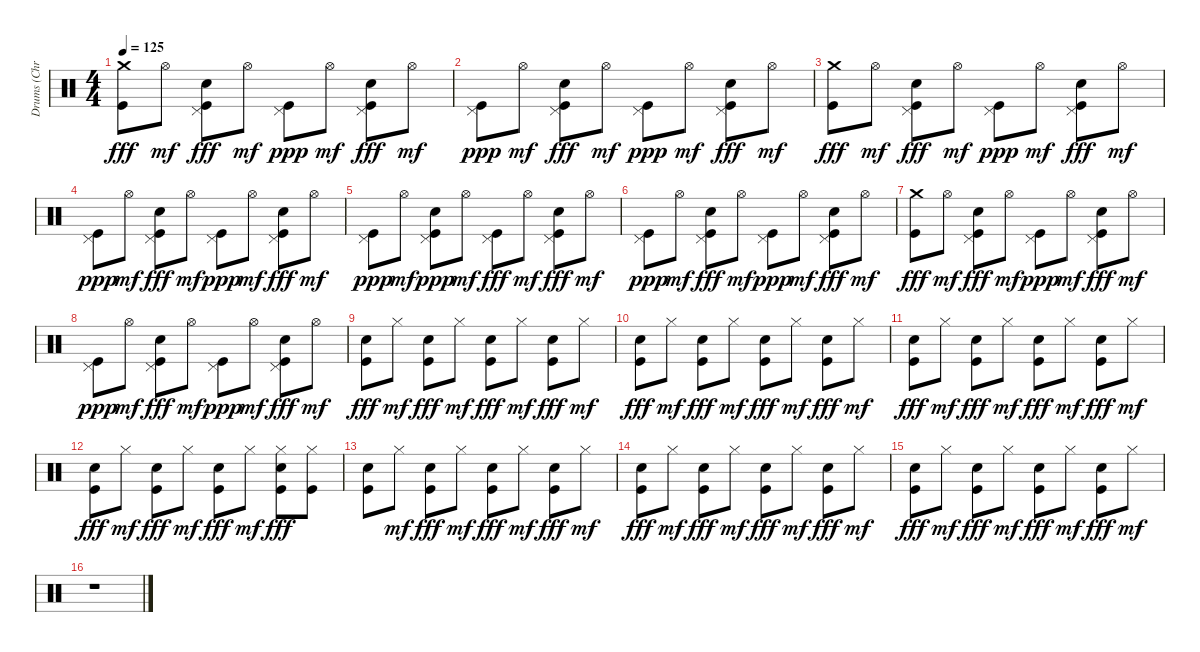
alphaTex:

\track ("Drums (Christoph)" "Drums (Chr") {instrument percussion}
\staff {score}
\articulation defaults
\ts (4 4)
\tempo 125
\clef neutral
\ks c
("Kick (hit)" "Crash medium (hit)").8{dy fff} "Hi-Hat (open)".8{dy mf} ("Kick (hit)" "Pedal Hi-Hat (hit)" "Electric Snare (hit)").8{dy fff} "Hi-Hat (open)".8{dy mf} ("Kick (hit)" "Pedal Hi-Hat (hit)").8{dy ppp} "Hi-Hat (open)".8{dy mf} ("Kick (hit)" "Pedal Hi-Hat (hit)" "Electric Snare (hit)").8{dy fff} "Hi-Hat (open)".8{dy mf} |
("Kick (hit)" "Pedal Hi-Hat (hit)").8{dy ppp} "Hi-Hat (open)".8{dy mf} ("Kick (hit)" "Pedal Hi-Hat (hit)" "Electric Snare (hit)").8{dy fff} "Hi-Hat (open)".8{dy mf} ("Kick (hit)" "Pedal Hi-Hat (hit)").8{dy ppp} "Hi-Hat (open)".8{dy mf} ("Kick (hit)" "Pedal Hi-Hat (hit)" "Electric Snare (hit)").8{dy fff} "Hi-Hat (open)".8{dy mf} |
("Kick (hit)" "Crash medium (hit)").8{dy fff} "Hi-Hat (open)".8{dy mf} ("Kick (hit)" "Pedal Hi-Hat (hit)" "Electric Snare (hit)").8{dy fff} "Hi-Hat (open)".8{dy mf} ("Kick (hit)" "Pedal Hi-Hat (hit)").8{dy ppp} "Hi-Hat (open)".8{dy mf} ("Kick (hit)" "Pedal Hi-Hat (hit)" "Electric Snare (hit)").8{dy fff} "Hi-Hat (open)".8{dy mf} |
("Kick (hit)" "Pedal Hi-Hat (hit)").8{dy ppp} "Hi-Hat (open)".8{dy mf} ("Kick (hit)" "Pedal Hi-Hat (hit)" "Electric Snare (hit)").8{dy fff} "Hi-Hat (open)".8{dy mf} ("Kick (hit)" "Pedal Hi-Hat (hit)").8{dy ppp} "Hi-Hat (open)".8{dy mf} ("Kick (hit)" "Pedal Hi-Hat (hit)" "Electric Snare (hit)").8{dy fff} "Hi-Hat (open)".8{dy mf} |
("Kick (hit)" "Pedal Hi-Hat (hit)").8{dy ppp} "Hi-Hat (open)".8{dy mf} ("Electric Snare (hit)" "Kick (hit)" "Pedal Hi-Hat (hit)").8{dy ppp} "Hi-Hat (open)".8{dy mf} ("Pedal Hi-Hat (hit)" "Kick (hit)").8{dy fff} "Hi-Hat (open)".8{dy mf} ("Kick (hit)" "Pedal Hi-Hat (hit)" "Electric Snare (hit)").8{dy fff} "Hi-Hat (open)".8{dy mf} |
("Kick (hit)" "Pedal Hi-Hat (hit)").8{dy ppp} "Hi-Hat (open)".8{dy mf} ("Pedal Hi-Hat (hit)" "Kick (hit)" "Electric Snare (hit)").8{dy fff} "Hi-Hat (open)".8{dy mf} ("Kick (hit)" "Pedal Hi-Hat (hit)").8{dy ppp} "Hi-Hat (open)".8{dy mf} ("Electric Snare (hit)" "Pedal Hi-Hat (hit)" "Kick (hit)").8{dy fff} "Hi-Hat (open)".8{dy mf} |
("Kick (hit)" "Crash medium (hit)").8{dy fff} "Hi-Hat (open)".8{dy mf} ("Kick (hit)" "Pedal Hi-Hat (hit)" "Electric Snare (hit)").8{dy fff} "Hi-Hat (open)".8{dy mf} ("Kick (hit)" "Pedal Hi-Hat (hit)").8{dy ppp} "Hi-Hat (open)".8{dy mf} ("Kick (hit)" "Pedal Hi-Hat (hit)" "Electric Snare (hit)").8{dy fff} "Hi-Hat (open)".8{dy mf} |
("Kick (hit)" "Pedal Hi-Hat (hit)").8{dy ppp} "Hi-Hat (open)".8{dy mf} ("Kick (hit)" "Pedal Hi-Hat (hit)" "Electric Snare (hit)").8{dy fff} "Hi-Hat (open)".8{dy mf} ("Kick (hit)" "Pedal Hi-Hat (hit)").8{dy ppp} "Hi-Hat (open)".8{dy mf} ("Kick (hit)" "Pedal Hi-Hat (hit)" "Electric Snare (hit)").8{dy fff} "Hi-Hat (open)".8{dy mf} |
("Kick (hit)" "Electric Snare (hit)").8{dy fff} "Hi-Hat (closed)".8{dy mf} ("Kick (hit)" "Electric Snare (hit)").8{dy fff} "Hi-Hat (closed)".8{dy mf} ("Kick (hit)" "Electric Snare (hit)").8{dy fff} "Hi-Hat (closed)".8{dy mf} ("Kick (hit)" "Electric Snare (hit)").8{dy fff} "Hi-Hat (closed)".8{dy mf} |
("Kick (hit)" "Electric Snare (hit)").8{dy fff} "Hi-Hat (closed)".8{dy mf} ("Kick (hit)" "Electric Snare (hit)").8{dy fff} "Hi-Hat (closed)".8{dy mf} ("Kick (hit)" "Electric Snare (hit)").8{dy fff} "Hi-Hat (closed)".8{dy mf} ("Kick (hit)" "Electric Snare (hit)").8{dy fff} "Hi-Hat (closed)".8{dy mf} |
("Kick (hit)" "Electric Snare (hit)").8{dy fff} "Hi-Hat (closed)".8{dy mf} ("Kick (hit)" "Electric Snare (hit)").8{dy fff} "Hi-Hat (closed)".8{dy mf} ("Electric Snare (hit)" "Kick (hit)").8{dy fff} "Hi-Hat (closed)".8{dy mf} ("Electric Snare (hit)" "Kick (hit)").8{dy fff} "Hi-Hat (closed)".8{dy mf} |
("Electric Snare (hit)" "Kick (hit)").8{dy fff} "Hi-Hat (closed)".8{dy mf} ("Electric Snare (hit)" "Kick (hit)").8{dy fff} "Hi-Hat (closed)".8{dy mf} ("Electric Snare (hit)" "Kick (hit)").8{dy fff} "Hi-Hat (closed)".8{dy mf} ("Electric Snare (hit)" "Hi-Hat (closed)" "Kick (hit)").8{dy fff} ("Hi-Hat (closed)" "Kick (hit)").8 |
("Electric Snare (hit)" "Kick (hit)").8 "Hi-Hat (closed)".8{dy mf} ("Electric Snare (hit)" "Kick (hit)").8{dy fff} "Hi-Hat (closed)".8{dy mf} ("Electric Snare (hit)" "Kick (hit)").8{dy fff} "Hi-Hat (closed)".8{dy mf} ("Electric Snare (hit)" "Kick (hit)").8{dy fff} "Hi-Hat (closed)".8{dy mf} |
("Electric Snare (hit)" "Kick (hit)").8{dy fff} "Hi-Hat (closed)".8{dy mf} ("Electric Snare (hit)" "Kick (hit)").8{dy fff} "Hi-Hat (closed)".8{dy mf} ("Electric Snare (hit)" "Kick (hit)").8{dy fff} "Hi-Hat (closed)".8{dy mf} ("Electric Snare (hit)" "Kick (hit)").8{dy fff} "Hi-Hat (closed)".8{dy mf} |
("Electric Snare (hit)" "Kick (hit)").8{dy fff} "Hi-Hat (closed)".8{dy mf} ("Electric Snare (hit)" "Kick (hit)").8{dy fff} "Hi-Hat (closed)".8{dy mf} ("Electric Snare (hit)" "Kick (hit)").8{dy fff} "Hi-Hat (closed)".8{dy mf} ("Electric Snare (hit)" "Kick (hit)").8{dy fff} "Hi-Hat (closed)".8{dy mf} |
r.1
